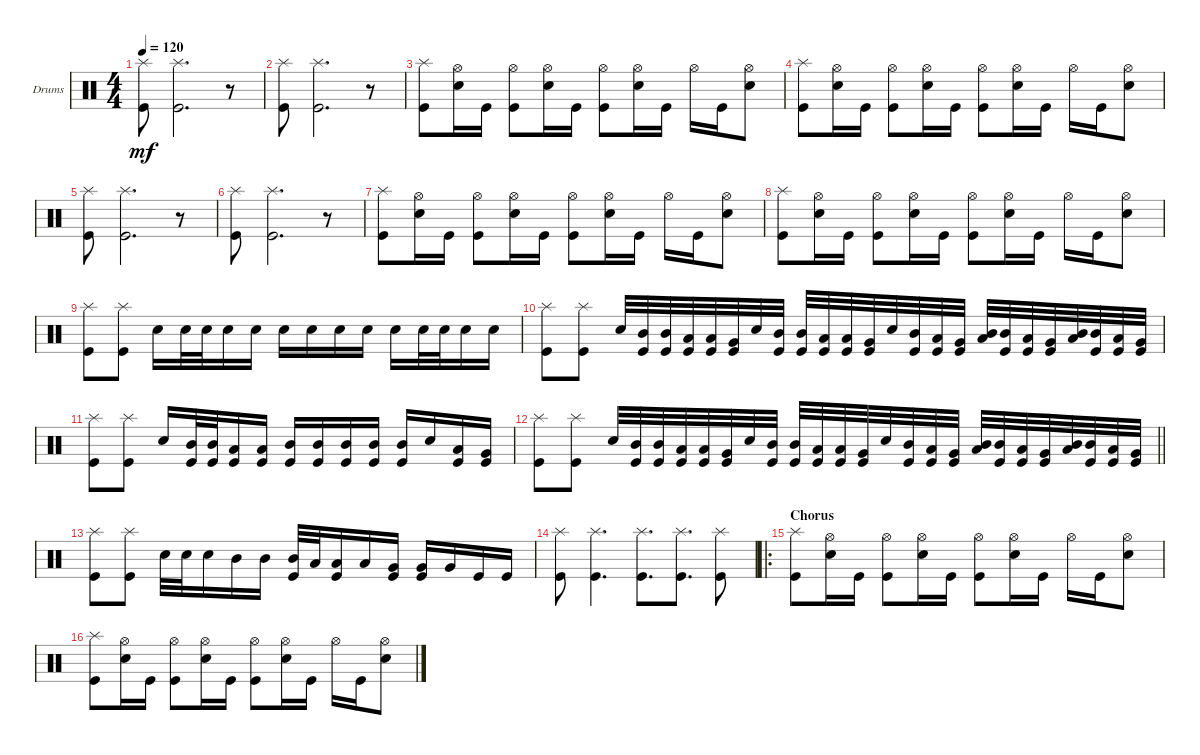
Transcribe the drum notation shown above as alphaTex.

\defaultSystemsLayout 4
\bracketExtendMode groupsimilarinstruments
\firstSystemTrackNameOrientation horizontal
\otherSystemsTrackNameOrientation horizontal
\track ("Drumkit" "Drums") {instrument percussion}
\staff {score}
\articulation defaults
\ts (4 4)
\tempo 120
\clef neutral
\ks c
("Kick (hit)" "Splash (hit)").8{dy mf} ("Kick (hit)" "Splash (hit)").2{d} r.8 |
("Kick (hit)" "Splash (hit)").8 ("Kick (hit)" "Splash (hit)").2{d} r.8 |
("Kick (hit)" "Splash (hit)").8 ("Snare (hit) 2" "Hi-Hat (open)").16 "Kick (hit)".16 ("Kick (hit)" "Hi-Hat (open)").8 ("Snare (hit) 2" "Hi-Hat (open)").16 "Kick (hit)".16 ("Kick (hit)" "Hi-Hat (open)").8 ("Snare (hit) 2" "Hi-Hat (open)").16 "Kick (hit)".16 "Hi-Hat (open)".16 "Kick (hit)".16 ("Snare (hit) 2" "Hi-Hat (open)").8 |
("Kick (hit)" "Splash (hit)").8 ("Snare (hit) 2" "Hi-Hat (open)").16 "Kick (hit)".16 ("Kick (hit)" "Hi-Hat (open)").8 ("Snare (hit) 2" "Hi-Hat (open)").16 "Kick (hit)".16 ("Kick (hit)" "Hi-Hat (open)").8 ("Snare (hit) 2" "Hi-Hat (open)").16 "Kick (hit)".16 "Hi-Hat (open)".16 "Kick (hit)".16 ("Snare (hit) 2" "Hi-Hat (open)").8 |
("Kick (hit)" "Splash (hit)").8 ("Kick (hit)" "Splash (hit)").2{d} r.8 |
("Kick (hit)" "Splash (hit)").8 ("Kick (hit)" "Splash (hit)").2{d} r.8 |
("Kick (hit)" "Splash (hit)").8 ("Snare (hit) 2" "Hi-Hat (open)").16 "Kick (hit)".16 ("Kick (hit)" "Hi-Hat (open)").8 ("Snare (hit) 2" "Hi-Hat (open)").16 "Kick (hit)".16 ("Kick (hit)" "Hi-Hat (open)").8 ("Snare (hit) 2" "Hi-Hat (open)").16 "Kick (hit)".16 "Hi-Hat (open)".16 "Kick (hit)".16 ("Snare (hit) 2" "Hi-Hat (open)").8 |
("Kick (hit)" "Splash (hit)").8 ("Snare (hit) 2" "Hi-Hat (open)").16 "Kick (hit)".16 ("Kick (hit)" "Hi-Hat (open)").8 ("Snare (hit) 2" "Hi-Hat (open)").16 "Kick (hit)".16 ("Kick (hit)" "Hi-Hat (open)").8 ("Snare (hit) 2" "Hi-Hat (open)").16 "Kick (hit)".16 "Hi-Hat (open)".16 "Kick (hit)".16 ("Snare (hit) 2" "Hi-Hat (open)").8 |
("Kick (hit)" "Splash (hit)").8 ("Kick (hit)" "Splash (hit)").8 "Snare (hit) 2".16 "Snare (hit) 2".32 "Snare (hit) 2".32 "Snare (hit) 2".16 "Snare (hit) 2".16 "Snare (hit) 2".16 "Snare (hit) 2".16 "Snare (hit) 2".16 "Snare (hit) 2".16 "Snare (hit) 2".16 "Snare (hit) 2".32 "Snare (hit) 2".32 "Snare (hit) 2".16 "Snare (hit) 2".16 |
("Kick (hit)" "Splash (hit)").8 ("Kick (hit)" "Splash (hit)").8 "Snare (hit) 2".32 ("Kick (hit)" "Mid Tom (hit)").32 ("Kick (hit)" "Mid Tom (hit)").32 ("Kick (hit)" "Low Tom (hit)").32 ("Kick (hit)" "Low Tom (hit)").32 ("Kick (hit)" "Very Low Tom (hit)").32 "Snare (hit) 2".32 ("Kick (hit)" "Mid Tom (hit)").32 ("Kick (hit)" "Mid Tom (hit)").32 ("Kick (hit)" "Low Tom (hit)").32 ("Kick (hit)" "Low Tom (hit)").32 ("Kick (hit)" "Very Low Tom (hit)").32 "Snare (hit) 2".32 ("Kick (hit)" "Mid Tom (hit)").32 ("Kick (hit)" "Low Tom (hit)").32 ("Kick (hit)" "Very Low Tom (hit)").32 ("Mid Tom (hit)" "Low Tom (hit)").32 ("Kick (hit)" "Mid Tom (hit)").32 ("Kick (hit)" "Low Tom (hit)").32 ("Kick (hit)" "Very Low Tom (hit)").32 ("Low Tom (hit)" "Mid Tom (hit)").32 ("Kick (hit)" "Mid Tom (hit)").32 ("Kick (hit)" "Low Tom (hit)").32 ("Kick (hit)" "Very Low Tom (hit)").32 |
("Kick (hit)" "Splash (hit)").8 ("Kick (hit)" "Splash (hit)").8 "Snare (hit) 2".16 ("Mid Tom (hit)" "Kick (hit)").32 ("Mid Tom (hit)" "Kick (hit)").32 ("Low Tom (hit)" "Kick (hit)").16 ("Low Tom (hit)" "Kick (hit)").16 ("Mid Tom (hit)" "Kick (hit)").16 ("Mid Tom (hit)" "Kick (hit)").16 ("Mid Tom (hit)" "Kick (hit)").16 ("Mid Tom (hit)" "Kick (hit)").16 ("Mid Tom (hit)" "Kick (hit)").16 "Snare (hit) 2".16 ("Low Tom (hit)" "Kick (hit)").16 ("Very Low Tom (hit)" "Kick (hit)").16 |
\barLineRight lightlight
("Kick (hit)" "Splash (hit)").8 ("Kick (hit)" "Splash (hit)").8 "Snare (hit) 2".32 ("Kick (hit)" "Mid Tom (hit)").32 ("Kick (hit)" "Mid Tom (hit)").32 ("Kick (hit)" "Low Tom (hit)").32 ("Kick (hit)" "Low Tom (hit)").32 ("Kick (hit)" "Very Low Tom (hit)").32 "Snare (hit) 2".32 ("Kick (hit)" "Mid Tom (hit)").32 ("Kick (hit)" "Mid Tom (hit)").32 ("Kick (hit)" "Low Tom (hit)").32 ("Kick (hit)" "Low Tom (hit)").32 ("Kick (hit)" "Very Low Tom (hit)").32 "Snare (hit) 2".32 ("Kick (hit)" "Mid Tom (hit)").32 ("Kick (hit)" "Low Tom (hit)").32 ("Kick (hit)" "Very Low Tom (hit)").32 ("Mid Tom (hit)" "Low Tom (hit)").32 ("Kick (hit)" "Mid Tom (hit)").32 ("Kick (hit)" "Low Tom (hit)").32 ("Kick (hit)" "Very Low Tom (hit)").32 ("Low Tom (hit)" "Mid Tom (hit)").32 ("Kick (hit)" "Mid Tom (hit)").32 ("Kick (hit)" "Low Tom (hit)").32 ("Kick (hit)" "Very Low Tom (hit)").32 |
("Kick (hit)" "Splash (hit)").8 ("Kick (hit)" "Splash (hit)").8 "Snare (hit) 2".32 "Snare (hit) 2".32 "Snare (hit) 2".16 "Mid Tom (hit)".16 "Mid Tom (hit)".16 ("Mid Tom (hit)" "Kick (hit)").32 "Low Tom (hit)".32 ("Low Tom (hit)" "Kick (hit)").16 "Low Tom (hit)".16 ("Kick (hit)" "Very Low Tom (hit)").16 ("Very Low Tom (hit)" "Kick (hit)").16 "Very Low Tom (hit)".16 "Kick (hit)".16 "Kick (hit)".16 |
("Kick (hit)" "Splash (hit)").8 ("Kick (hit)" "Splash (hit)").4{d} ("Kick (hit)" "Splash (hit)").8{d} ("Kick (hit)" "Splash (hit)").8{d} ("Kick (hit)" "Splash (hit)").8 |
\ro
\section ("" "Chorus")
("Kick (hit)" "Splash (hit)").8 ("Snare (hit) 2" "Hi-Hat (open)").16 "Kick (hit)".16 ("Kick (hit)" "Hi-Hat (open)").8 ("Snare (hit) 2" "Hi-Hat (open)").16 "Kick (hit)".16 ("Kick (hit)" "Hi-Hat (open)").8 ("Snare (hit) 2" "Hi-Hat (open)").16 "Kick (hit)".16 "Hi-Hat (open)".16 "Kick (hit)".16 ("Snare (hit) 2" "Hi-Hat (open)").8 |
("Kick (hit)" "Splash (hit)").8 ("Snare (hit) 2" "Hi-Hat (open)").16 "Kick (hit)".16 ("Kick (hit)" "Hi-Hat (open)").8 ("Snare (hit) 2" "Hi-Hat (open)").16 "Kick (hit)".16 ("Kick (hit)" "Hi-Hat (open)").8 ("Snare (hit) 2" "Hi-Hat (open)").16 "Kick (hit)".16 "Hi-Hat (open)".16 "Kick (hit)".16 ("Snare (hit) 2" "Hi-Hat (open)").8
